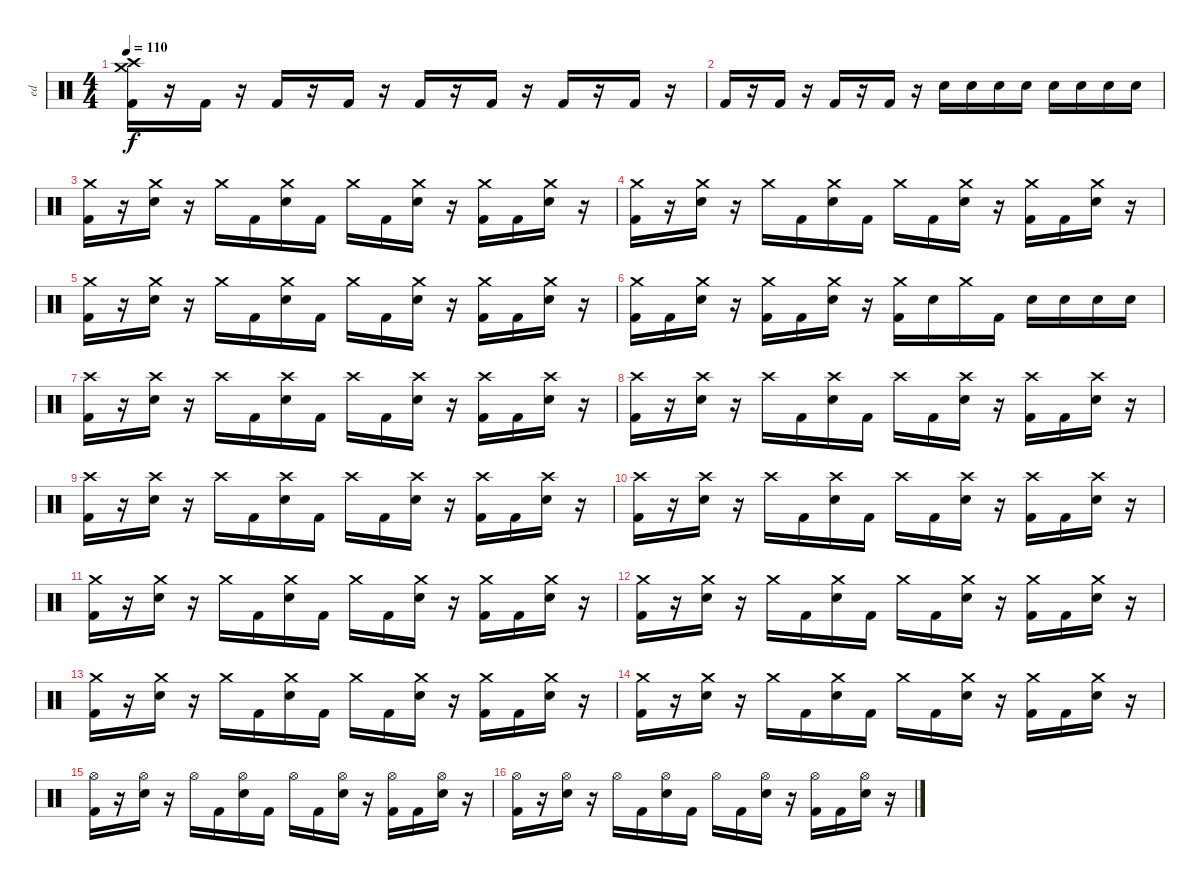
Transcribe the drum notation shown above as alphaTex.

\track ("ed" "ed") {instrument percussion}
\staff {score}
\articulation defaults
\ts (4 4)
\tempo 110
\clef neutral
\ks c
("Crash medium (hit)" "Crash high (hit)" "Kick (hit) 2").16{dy f} r.16 "Kick (hit) 2".16 r.16 "Kick (hit) 2".16 r.16 "Kick (hit) 2".16 r.16 "Kick (hit) 2".16 r.16 "Kick (hit) 2".16 r.16 "Kick (hit) 2".16 r.16 "Kick (hit) 2".16 r.16 |
"Kick (hit) 2".16 r.16 "Kick (hit) 2".16 r.16 "Kick (hit) 2".16 r.16 "Kick (hit) 2".16 r.16 "Electric Snare (hit)".16 "Electric Snare (hit)".16 "Electric Snare (hit)".16 "Electric Snare (hit)".16 "Electric Snare (hit)".16 "Electric Snare (hit)".16 "Electric Snare (hit)".16 "Electric Snare (hit)".16 |
("Crash medium (hit)" "Kick (hit) 2").16 r.16 ("Crash medium (hit)" "Electric Snare (hit)").16 r.16 "Crash medium (hit)".16 "Kick (hit) 2".16 ("Crash medium (hit)" "Electric Snare (hit)").16 "Kick (hit) 2".16 "Crash medium (hit)".16 "Kick (hit) 2".16 ("Crash medium (hit)" "Electric Snare (hit)").16 r.16 ("Crash medium (hit)" "Kick (hit) 2").16 "Kick (hit) 2".16 ("Crash medium (hit)" "Electric Snare (hit)").16 r.16 |
("Crash medium (hit)" "Kick (hit) 2").16 r.16 ("Crash medium (hit)" "Electric Snare (hit)").16 r.16 "Crash medium (hit)".16 "Kick (hit) 2".16 ("Crash medium (hit)" "Electric Snare (hit)").16 "Kick (hit) 2".16 "Crash medium (hit)".16 "Kick (hit) 2".16 ("Crash medium (hit)" "Electric Snare (hit)").16 r.16 ("Crash medium (hit)" "Kick (hit) 2").16 "Kick (hit) 2".16 ("Crash medium (hit)" "Electric Snare (hit)").16 r.16 |
("Crash medium (hit)" "Kick (hit) 2").16 r.16 ("Crash medium (hit)" "Electric Snare (hit)").16 r.16 "Crash medium (hit)".16 "Kick (hit) 2".16 ("Crash medium (hit)" "Electric Snare (hit)").16 "Kick (hit) 2".16 "Crash medium (hit)".16 "Kick (hit) 2".16 ("Crash medium (hit)" "Electric Snare (hit)").16 r.16 ("Crash medium (hit)" "Kick (hit) 2").16 "Kick (hit) 2".16 ("Crash medium (hit)" "Electric Snare (hit)").16 r.16 |
("Crash medium (hit)" "Kick (hit) 2").16 "Kick (hit) 2".16 ("Crash medium (hit)" "Electric Snare (hit)").16 r.16 ("Crash medium (hit)" "Kick (hit) 2").16 "Kick (hit) 2".16 ("Crash medium (hit)" "Electric Snare (hit)").16 r.16 ("Crash medium (hit)" "Kick (hit) 2").16 "Electric Snare (hit)".16 "Crash medium (hit)".16 "Kick (hit) 2".16 "Electric Snare (hit)".16 "Electric Snare (hit)".16 "Electric Snare (hit)".16 "Electric Snare (hit)".16 |
("Crash high (hit)" "Kick (hit) 2").16 r.16 ("Crash high (hit)" "Electric Snare (hit)").16 r.16 "Crash high (hit)".16 "Kick (hit) 2".16 ("Crash high (hit)" "Electric Snare (hit)").16 "Kick (hit) 2".16 "Crash high (hit)".16 "Kick (hit) 2".16 ("Crash high (hit)" "Electric Snare (hit)").16 r.16 ("Crash high (hit)" "Kick (hit) 2").16 "Kick (hit) 2".16 ("Crash high (hit)" "Electric Snare (hit)").16 r.16 |
("Crash high (hit)" "Kick (hit) 2").16 r.16 ("Crash high (hit)" "Electric Snare (hit)").16 r.16 "Crash high (hit)".16 "Kick (hit) 2".16 ("Crash high (hit)" "Electric Snare (hit)").16 "Kick (hit) 2".16 "Crash high (hit)".16 "Kick (hit) 2".16 ("Crash high (hit)" "Electric Snare (hit)").16 r.16 ("Crash high (hit)" "Kick (hit) 2").16 "Kick (hit) 2".16 ("Crash high (hit)" "Electric Snare (hit)").16 r.16 |
("Crash high (hit)" "Kick (hit) 2").16 r.16 ("Crash high (hit)" "Electric Snare (hit)").16 r.16 "Crash high (hit)".16 "Kick (hit) 2".16 ("Crash high (hit)" "Electric Snare (hit)").16 "Kick (hit) 2".16 "Crash high (hit)".16 "Kick (hit) 2".16 ("Crash high (hit)" "Electric Snare (hit)").16 r.16 ("Crash high (hit)" "Kick (hit) 2").16 "Kick (hit) 2".16 ("Crash high (hit)" "Electric Snare (hit)").16 r.16 |
("Crash high (hit)" "Kick (hit) 2").16 r.16 ("Crash high (hit)" "Electric Snare (hit)").16 r.16 "Crash high (hit)".16 "Kick (hit) 2".16 ("Crash high (hit)" "Electric Snare (hit)").16 "Kick (hit) 2".16 "Crash high (hit)".16 "Kick (hit) 2".16 ("Crash high (hit)" "Electric Snare (hit)").16 r.16 ("Crash high (hit)" "Kick (hit) 2").16 "Kick (hit) 2".16 ("Crash high (hit)" "Electric Snare (hit)").16 r.16 |
("Crash medium (hit)" "Kick (hit) 2").16 r.16 ("Crash medium (hit)" "Electric Snare (hit)").16 r.16 "Crash medium (hit)".16 "Kick (hit) 2".16 ("Crash medium (hit)" "Electric Snare (hit)").16 "Kick (hit) 2".16 "Crash medium (hit)".16 "Kick (hit) 2".16 ("Crash medium (hit)" "Electric Snare (hit)").16 r.16 ("Crash medium (hit)" "Kick (hit) 2").16 "Kick (hit) 2".16 ("Crash medium (hit)" "Electric Snare (hit)").16 r.16 |
("Crash medium (hit)" "Kick (hit) 2").16 r.16 ("Crash medium (hit)" "Electric Snare (hit)").16 r.16 "Crash medium (hit)".16 "Kick (hit) 2".16 ("Crash medium (hit)" "Electric Snare (hit)").16 "Kick (hit) 2".16 "Crash medium (hit)".16 "Kick (hit) 2".16 ("Crash medium (hit)" "Electric Snare (hit)").16 r.16 ("Crash medium (hit)" "Kick (hit) 2").16 "Kick (hit) 2".16 ("Crash medium (hit)" "Electric Snare (hit)").16 r.16 |
("Crash medium (hit)" "Kick (hit) 2").16 r.16 ("Crash medium (hit)" "Electric Snare (hit)").16 r.16 "Crash medium (hit)".16 "Kick (hit) 2".16 ("Crash medium (hit)" "Electric Snare (hit)").16 "Kick (hit) 2".16 "Crash medium (hit)".16 "Kick (hit) 2".16 ("Crash medium (hit)" "Electric Snare (hit)").16 r.16 ("Crash medium (hit)" "Kick (hit) 2").16 "Kick (hit) 2".16 ("Crash medium (hit)" "Electric Snare (hit)").16 r.16 |
("Crash medium (hit)" "Kick (hit) 2").16 r.16 ("Crash medium (hit)" "Electric Snare (hit)").16 r.16 "Crash medium (hit)".16 "Kick (hit) 2".16 ("Crash medium (hit)" "Electric Snare (hit)").16 "Kick (hit) 2".16 "Crash medium (hit)".16 "Kick (hit) 2".16 ("Crash medium (hit)" "Electric Snare (hit)").16 r.16 ("Crash medium (hit)" "Kick (hit) 2").16 "Kick (hit) 2".16 ("Crash medium (hit)" "Electric Snare (hit)").16 r.16 |
("Hi-Hat (open)" "Kick (hit) 2").16 r.16 ("Hi-Hat (open)" "Electric Snare (hit)").16 r.16 "Hi-Hat (open)".16 "Kick (hit) 2".16 ("Hi-Hat (open)" "Electric Snare (hit)").16 "Kick (hit) 2".16 "Hi-Hat (open)".16 "Kick (hit) 2".16 ("Hi-Hat (open)" "Electric Snare (hit)").16 r.16 ("Hi-Hat (open)" "Kick (hit) 2").16 "Kick (hit) 2".16 ("Hi-Hat (open)" "Electric Snare (hit)").16 r.16 |
("Hi-Hat (open)" "Kick (hit) 2").16 r.16 ("Hi-Hat (open)" "Electric Snare (hit)").16 r.16 "Hi-Hat (open)".16 "Kick (hit) 2".16 ("Hi-Hat (open)" "Electric Snare (hit)").16 "Kick (hit) 2".16 "Hi-Hat (open)".16 "Kick (hit) 2".16 ("Hi-Hat (open)" "Electric Snare (hit)").16 r.16 ("Hi-Hat (open)" "Kick (hit) 2").16 "Kick (hit) 2".16 ("Hi-Hat (open)" "Electric Snare (hit)").16 r.16
